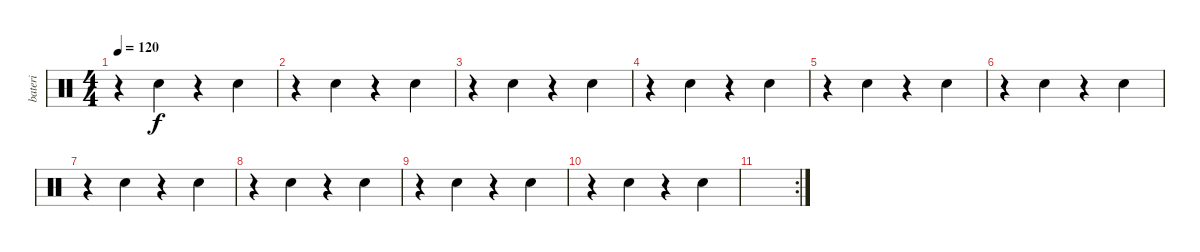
\track ("bateri" "bateri") {instrument percussion}
\staff {score}
\articulation defaults
\ts (4 4)
\tempo 120
\clef neutral
\ks c
r.4{dy f} "Electric Snare (hit)".4 r.4 "Electric Snare (hit)".4 |
r.4 "Electric Snare (hit)".4 r.4 "Electric Snare (hit)".4 |
r.4 "Electric Snare (hit)".4 r.4 "Electric Snare (hit)".4 |
r.4 "Electric Snare (hit)".4 r.4 "Electric Snare (hit)".4 |
r.4 "Electric Snare (hit)".4 r.4 "Electric Snare (hit)".4 |
r.4 "Electric Snare (hit)".4 r.4 "Electric Snare (hit)".4 |
r.4 "Electric Snare (hit)".4 r.4 "Electric Snare (hit)".4 |
r.4 "Electric Snare (hit)".4 r.4 "Electric Snare (hit)".4 |
r.4 "Electric Snare (hit)".4 r.4 "Electric Snare (hit)".4 |
r.4 "Electric Snare (hit)".4 r.4 "Electric Snare (hit)".4 |
\rc 2
